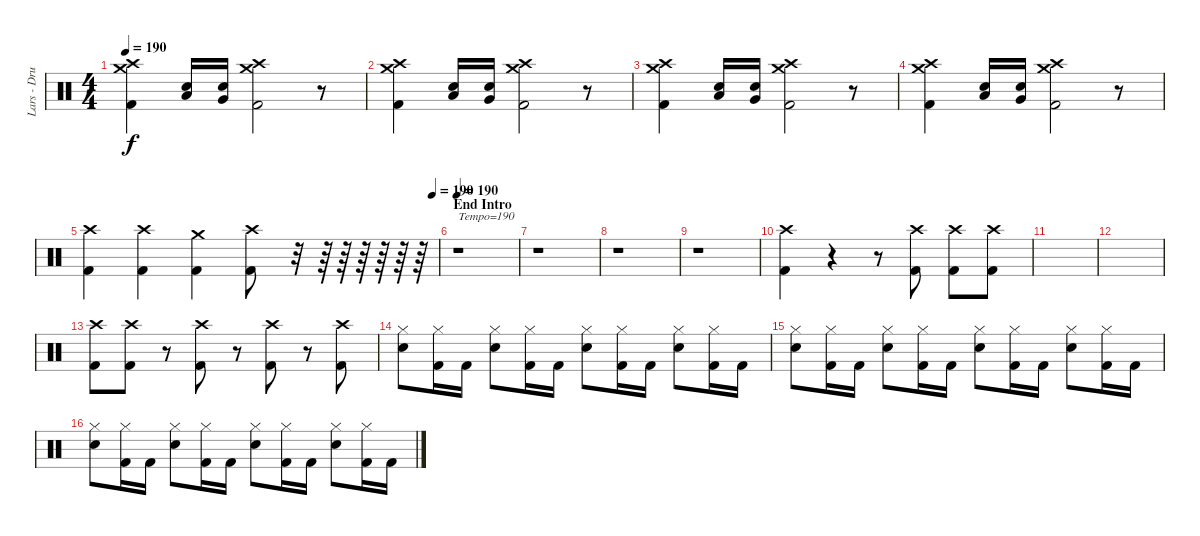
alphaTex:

\track ("Lars - Drums" "Lars - Dru") {instrument percussion}
\staff {score}
\articulation defaults
\ts (4 4)
\tempo 190
\clef neutral
\ks c
("Crash high (hit)" "Crash medium (hit)" "Kick (hit) 2").4{dy f} ("Low Tom (hit)" "Snare (hit) 2").16 ("Very Low Tom (hit)" "Snare (hit) 2").16 ("Crash high (hit)" "Crash medium (hit)" "Kick (hit) 2").2 r.8 |
("Crash high (hit)" "Crash medium (hit)" "Kick (hit) 2").4 ("Low Tom (hit)" "Snare (hit) 2").16 ("Very Low Tom (hit)" "Snare (hit) 2").16 ("Crash high (hit)" "Crash medium (hit)" "Kick (hit) 2").2 r.8 |
("Crash high (hit)" "Crash medium (hit)" "Kick (hit) 2").4 ("Low Tom (hit)" "Snare (hit) 2").16 ("Very Low Tom (hit)" "Snare (hit) 2").16 ("Crash high (hit)" "Crash medium (hit)" "Kick (hit) 2").2 r.8 |
("Crash high (hit)" "Crash medium (hit)" "Kick (hit) 2").4 ("Low Tom (hit)" "Snare (hit) 2").16 ("Very Low Tom (hit)" "Snare (hit) 2").16 ("Crash high (hit)" "Crash medium (hit)" "Kick (hit) 2").2 r.8 |
\tempo (190 0.984375)
("Crash high (hit)" "Kick (hit) 2").4 ("Crash high (hit)" "Kick (hit) 2").4 ("Crash medium (hit)" "Kick (hit) 2").4 ("Crash high (hit)" "Kick (hit) 2").8 r.32 r.64 r.64 r.64 r.64 r.64 r.64 |
\section ("" "End Intro")
\tempo 190
r.1{txt "Tempo=190"} |
r.1 |
r.1 |
r.1 |
("Crash high (hit)" "Kick (hit) 2").4 r.4 r.8 ("Crash high (hit)" "Kick (hit) 2").8 ("Crash high (hit)" "Kick (hit) 2").8 ("Crash high (hit)" "Kick (hit) 2").8 |
|
|
("Crash high (hit)" "Kick (hit) 2").8 ("Crash high (hit)" "Kick (hit) 2").8 r.8 ("Crash high (hit)" "Kick (hit) 2").8 r.8 ("Crash high (hit)" "Kick (hit) 2").8 r.8 ("Crash high (hit)" "Kick (hit) 2").8 |
("Snare (hit) 2" "Hi-Hat (closed)").8 ("Kick (hit) 2" "Hi-Hat (closed)").16 "Kick (hit) 2".16 ("Snare (hit) 2" "Hi-Hat (closed)").8 ("Kick (hit) 2" "Hi-Hat (closed)").16 "Kick (hit) 2".16 ("Snare (hit) 2" "Hi-Hat (closed)").8 ("Kick (hit) 2" "Hi-Hat (closed)").16 "Kick (hit) 2".16 ("Snare (hit) 2" "Hi-Hat (closed)").8 ("Kick (hit) 2" "Hi-Hat (closed)").16 "Kick (hit) 2".16 |
("Snare (hit) 2" "Hi-Hat (closed)").8 ("Kick (hit) 2" "Hi-Hat (closed)").16 "Kick (hit) 2".16 ("Snare (hit) 2" "Hi-Hat (closed)").8 ("Kick (hit) 2" "Hi-Hat (closed)").16 "Kick (hit) 2".16 ("Snare (hit) 2" "Hi-Hat (closed)").8 ("Kick (hit) 2" "Hi-Hat (closed)").16 "Kick (hit) 2".16 ("Snare (hit) 2" "Hi-Hat (closed)").8 ("Kick (hit) 2" "Hi-Hat (closed)").16 "Kick (hit) 2".16 |
("Snare (hit) 2" "Hi-Hat (closed)").8 ("Kick (hit) 2" "Hi-Hat (closed)").16 "Kick (hit) 2".16 ("Snare (hit) 2" "Hi-Hat (closed)").8 ("Kick (hit) 2" "Hi-Hat (closed)").16 "Kick (hit) 2".16 ("Snare (hit) 2" "Hi-Hat (closed)").8 ("Kick (hit) 2" "Hi-Hat (closed)").16 "Kick (hit) 2".16 ("Snare (hit) 2" "Hi-Hat (closed)").8 ("Kick (hit) 2" "Hi-Hat (closed)").16 "Kick (hit) 2".16
